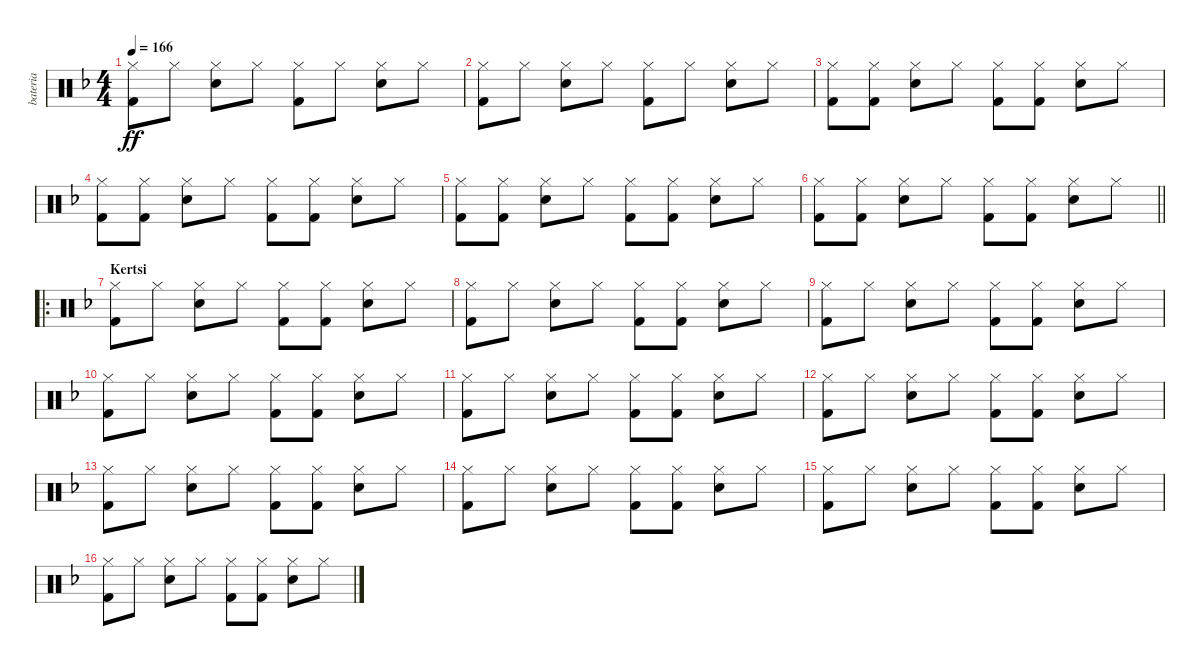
\track ("bateria" "bateria") {instrument percussion}
\staff {score}
\articulation defaults
\ts (4 4)
\tempo 166
\clef neutral
\ks f
("Hi-Hat (closed)" "Kick (hit) 2").8{dy ff} "Hi-Hat (closed)".8 ("Hi-Hat (closed)" "Electric Snare (hit)").8 "Hi-Hat (closed)".8 ("Hi-Hat (closed)" "Kick (hit) 2").8 "Hi-Hat (closed)".8 ("Hi-Hat (closed)" "Electric Snare (hit)").8 "Hi-Hat (closed)".8 |
("Hi-Hat (closed)" "Kick (hit) 2").8 "Hi-Hat (closed)".8 ("Hi-Hat (closed)" "Electric Snare (hit)").8 "Hi-Hat (closed)".8 ("Hi-Hat (closed)" "Kick (hit) 2").8 "Hi-Hat (closed)".8 ("Hi-Hat (closed)" "Electric Snare (hit)").8 "Hi-Hat (closed)".8 |
("Hi-Hat (closed)" "Kick (hit) 2").8 ("Hi-Hat (closed)" "Kick (hit) 2").8 ("Hi-Hat (closed)" "Electric Snare (hit)").8 "Hi-Hat (closed)".8 ("Hi-Hat (closed)" "Kick (hit) 2").8 ("Hi-Hat (closed)" "Kick (hit) 2").8 ("Hi-Hat (closed)" "Electric Snare (hit)").8 "Hi-Hat (closed)".8 |
("Hi-Hat (closed)" "Kick (hit) 2").8 ("Hi-Hat (closed)" "Kick (hit) 2").8 ("Hi-Hat (closed)" "Electric Snare (hit)").8 "Hi-Hat (closed)".8 ("Hi-Hat (closed)" "Kick (hit) 2").8 ("Hi-Hat (closed)" "Kick (hit) 2").8 ("Hi-Hat (closed)" "Electric Snare (hit)").8 "Hi-Hat (closed)".8 |
("Hi-Hat (closed)" "Kick (hit) 2").8 ("Hi-Hat (closed)" "Kick (hit) 2").8 ("Hi-Hat (closed)" "Electric Snare (hit)").8 "Hi-Hat (closed)".8 ("Hi-Hat (closed)" "Kick (hit) 2").8 ("Hi-Hat (closed)" "Kick (hit) 2").8 ("Hi-Hat (closed)" "Electric Snare (hit)").8 "Hi-Hat (closed)".8 |
\barLineRight lightlight
("Hi-Hat (closed)" "Kick (hit) 2").8 ("Hi-Hat (closed)" "Kick (hit) 2").8 ("Hi-Hat (closed)" "Electric Snare (hit)").8 "Hi-Hat (closed)".8 ("Hi-Hat (closed)" "Kick (hit) 2").8 ("Hi-Hat (closed)" "Kick (hit) 2").8 ("Hi-Hat (closed)" "Electric Snare (hit)").8 "Hi-Hat (closed)".8 |
\ro
\section ("" "Kertsi")
("Hi-Hat (closed)" "Kick (hit) 2").8 "Hi-Hat (closed)".8 ("Hi-Hat (closed)" "Electric Snare (hit)").8 "Hi-Hat (closed)".8 ("Hi-Hat (closed)" "Kick (hit) 2").8 ("Hi-Hat (closed)" "Kick (hit) 2").8 ("Hi-Hat (closed)" "Electric Snare (hit)").8 "Hi-Hat (closed)".8 |
("Hi-Hat (closed)" "Kick (hit) 2").8 "Hi-Hat (closed)".8 ("Hi-Hat (closed)" "Electric Snare (hit)").8 "Hi-Hat (closed)".8 ("Hi-Hat (closed)" "Kick (hit) 2").8 ("Hi-Hat (closed)" "Kick (hit) 2").8 ("Hi-Hat (closed)" "Electric Snare (hit)").8 "Hi-Hat (closed)".8 |
("Hi-Hat (closed)" "Kick (hit) 2").8 "Hi-Hat (closed)".8 ("Hi-Hat (closed)" "Electric Snare (hit)").8 "Hi-Hat (closed)".8 ("Hi-Hat (closed)" "Kick (hit) 2").8 ("Hi-Hat (closed)" "Kick (hit) 2").8 ("Hi-Hat (closed)" "Electric Snare (hit)").8 "Hi-Hat (closed)".8 |
("Hi-Hat (closed)" "Kick (hit) 2").8 "Hi-Hat (closed)".8 ("Hi-Hat (closed)" "Electric Snare (hit)").8 "Hi-Hat (closed)".8 ("Hi-Hat (closed)" "Kick (hit) 2").8 ("Hi-Hat (closed)" "Kick (hit) 2").8 ("Hi-Hat (closed)" "Electric Snare (hit)").8 "Hi-Hat (closed)".8 |
("Hi-Hat (closed)" "Kick (hit) 2").8 "Hi-Hat (closed)".8 ("Hi-Hat (closed)" "Electric Snare (hit)").8 "Hi-Hat (closed)".8 ("Hi-Hat (closed)" "Kick (hit) 2").8 ("Hi-Hat (closed)" "Kick (hit) 2").8 ("Hi-Hat (closed)" "Electric Snare (hit)").8 "Hi-Hat (closed)".8 |
("Hi-Hat (closed)" "Kick (hit) 2").8 "Hi-Hat (closed)".8 ("Hi-Hat (closed)" "Electric Snare (hit)").8 "Hi-Hat (closed)".8 ("Hi-Hat (closed)" "Kick (hit) 2").8 ("Hi-Hat (closed)" "Kick (hit) 2").8 ("Hi-Hat (closed)" "Electric Snare (hit)").8 "Hi-Hat (closed)".8 |
("Hi-Hat (closed)" "Kick (hit) 2").8 "Hi-Hat (closed)".8 ("Hi-Hat (closed)" "Electric Snare (hit)").8 "Hi-Hat (closed)".8 ("Hi-Hat (closed)" "Kick (hit) 2").8 ("Hi-Hat (closed)" "Kick (hit) 2").8 ("Hi-Hat (closed)" "Electric Snare (hit)").8 "Hi-Hat (closed)".8 |
("Hi-Hat (closed)" "Kick (hit) 2").8 "Hi-Hat (closed)".8 ("Hi-Hat (closed)" "Electric Snare (hit)").8 "Hi-Hat (closed)".8 ("Hi-Hat (closed)" "Kick (hit) 2").8 ("Hi-Hat (closed)" "Kick (hit) 2").8 ("Hi-Hat (closed)" "Electric Snare (hit)").8 "Hi-Hat (closed)".8 |
("Hi-Hat (closed)" "Kick (hit) 2").8 "Hi-Hat (closed)".8 ("Hi-Hat (closed)" "Electric Snare (hit)").8 "Hi-Hat (closed)".8 ("Hi-Hat (closed)" "Kick (hit) 2").8 ("Hi-Hat (closed)" "Kick (hit) 2").8 ("Hi-Hat (closed)" "Electric Snare (hit)").8 "Hi-Hat (closed)".8 |
("Hi-Hat (closed)" "Kick (hit) 2").8 "Hi-Hat (closed)".8 ("Hi-Hat (closed)" "Electric Snare (hit)").8 "Hi-Hat (closed)".8 ("Hi-Hat (closed)" "Kick (hit) 2").8 ("Hi-Hat (closed)" "Kick (hit) 2").8 ("Hi-Hat (closed)" "Electric Snare (hit)").8 "Hi-Hat (closed)".8
